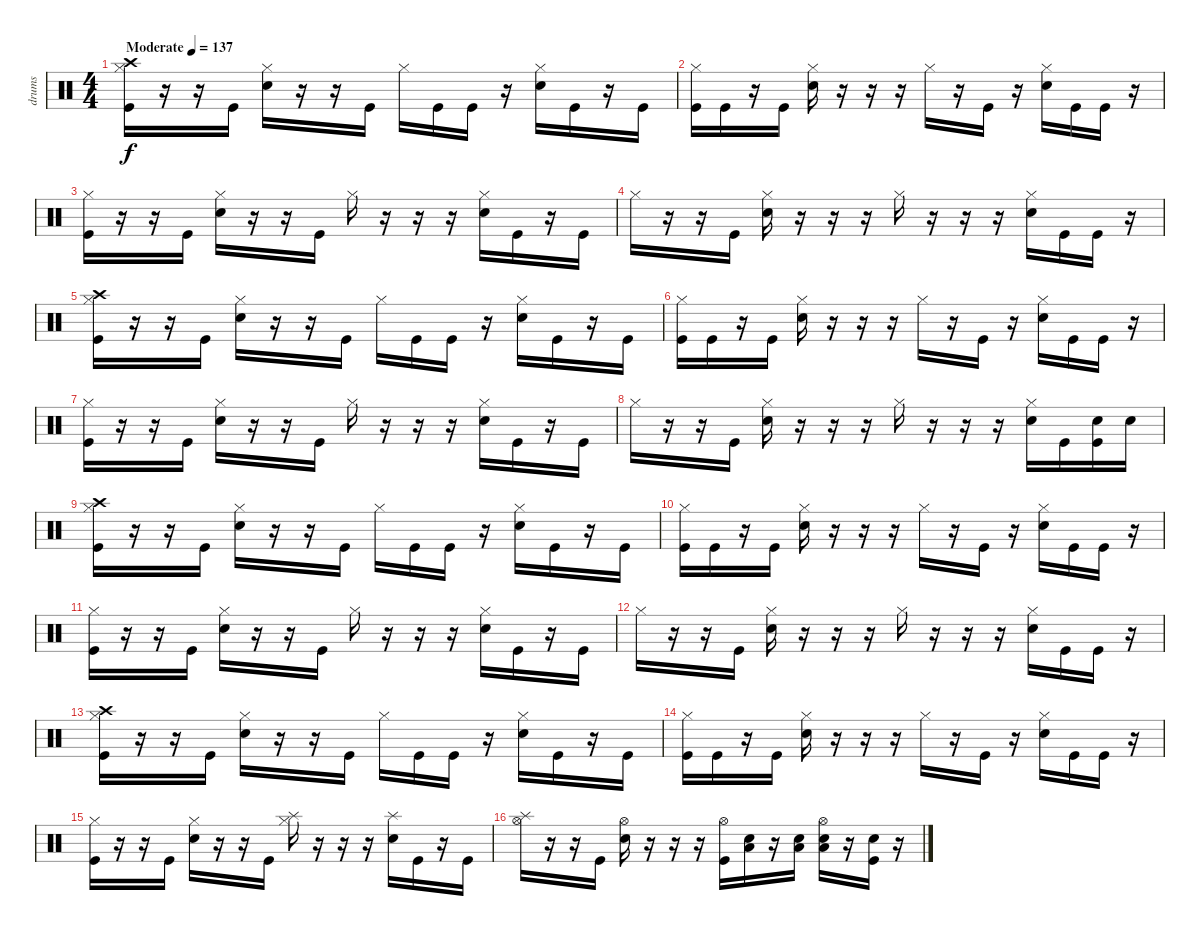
\track ("drums" "drums") {instrument percussion}
\staff {score}
\articulation defaults
\ts (4 4)
\tempo (137 "Moderate")
\clef neutral
\ks c
("Hi-Hat (closed)" "Crash high (hit)" "Kick (hit)").16{dy f} r.16 r.16 "Kick (hit)".16 ("Hi-Hat (closed)" "Electric Snare (hit)").16 r.16 r.16 "Kick (hit)".16 "Hi-Hat (closed)".16 "Kick (hit)".16 "Kick (hit)".16 r.16 ("Hi-Hat (closed)" "Electric Snare (hit)").16 "Kick (hit)".16 r.16 "Kick (hit)".16 |
("Hi-Hat (closed)" "Kick (hit)").16 "Kick (hit)".16 r.16 "Kick (hit)".16 ("Hi-Hat (closed)" "Electric Snare (hit)").16 r.16 r.16 r.16 "Hi-Hat (closed)".16 r.16 "Kick (hit)".16 r.16 ("Hi-Hat (closed)" "Electric Snare (hit)").16 "Kick (hit)".16 "Kick (hit)".16 r.16 |
("Hi-Hat (closed)" "Kick (hit)").16 r.16 r.16 "Kick (hit)".16 ("Hi-Hat (closed)" "Electric Snare (hit)").16 r.16 r.16 "Kick (hit)".16 "Hi-Hat (closed)".16 r.16 r.16 r.16 ("Hi-Hat (closed)" "Electric Snare (hit)").16 "Kick (hit)".16 r.16 "Kick (hit)".16 |
"Hi-Hat (closed)".16 r.16 r.16 "Kick (hit)".16 ("Hi-Hat (closed)" "Electric Snare (hit)").16 r.16 r.16 r.16 "Hi-Hat (closed)".16 r.16 r.16 r.16 ("Hi-Hat (closed)" "Electric Snare (hit)").16 "Kick (hit)".16 "Kick (hit)".16 r.16 |
("Hi-Hat (closed)" "Crash high (hit)" "Kick (hit)").16 r.16 r.16 "Kick (hit)".16 ("Hi-Hat (closed)" "Electric Snare (hit)").16 r.16 r.16 "Kick (hit)".16 "Hi-Hat (closed)".16 "Kick (hit)".16 "Kick (hit)".16 r.16 ("Hi-Hat (closed)" "Electric Snare (hit)").16 "Kick (hit)".16 r.16 "Kick (hit)".16 |
("Hi-Hat (closed)" "Kick (hit)").16 "Kick (hit)".16 r.16 "Kick (hit)".16 ("Hi-Hat (closed)" "Electric Snare (hit)").16 r.16 r.16 r.16 "Hi-Hat (closed)".16 r.16 "Kick (hit)".16 r.16 ("Hi-Hat (closed)" "Electric Snare (hit)").16 "Kick (hit)".16 "Kick (hit)".16 r.16 |
("Hi-Hat (closed)" "Kick (hit)").16 r.16 r.16 "Kick (hit)".16 ("Hi-Hat (closed)" "Electric Snare (hit)").16 r.16 r.16 "Kick (hit)".16 "Hi-Hat (closed)".16 r.16 r.16 r.16 ("Hi-Hat (closed)" "Electric Snare (hit)").16 "Kick (hit)".16 r.16 "Kick (hit)".16 |
"Hi-Hat (closed)".16 r.16 r.16 "Kick (hit)".16 ("Hi-Hat (closed)" "Electric Snare (hit)").16 r.16 r.16 r.16 "Hi-Hat (closed)".16 r.16 r.16 r.16 ("Hi-Hat (closed)" "Electric Snare (hit)").16 "Kick (hit)".16 ("Electric Snare (hit)" "Kick (hit)").16 "Electric Snare (hit)".16 |
("Hi-Hat (closed)" "Crash high (hit)" "Kick (hit)").16 r.16 r.16 "Kick (hit)".16 ("Hi-Hat (closed)" "Electric Snare (hit)").16 r.16 r.16 "Kick (hit)".16 "Hi-Hat (closed)".16 "Kick (hit)".16 "Kick (hit)".16 r.16 ("Hi-Hat (closed)" "Electric Snare (hit)").16 "Kick (hit)".16 r.16 "Kick (hit)".16 |
("Hi-Hat (closed)" "Kick (hit)").16 "Kick (hit)".16 r.16 "Kick (hit)".16 ("Hi-Hat (closed)" "Electric Snare (hit)").16 r.16 r.16 r.16 "Hi-Hat (closed)".16 r.16 "Kick (hit)".16 r.16 ("Hi-Hat (closed)" "Electric Snare (hit)").16 "Kick (hit)".16 "Kick (hit)".16 r.16 |
("Hi-Hat (closed)" "Kick (hit)").16 r.16 r.16 "Kick (hit)".16 ("Hi-Hat (closed)" "Electric Snare (hit)").16 r.16 r.16 "Kick (hit)".16 "Hi-Hat (closed)".16 r.16 r.16 r.16 ("Hi-Hat (closed)" "Electric Snare (hit)").16 "Kick (hit)".16 r.16 "Kick (hit)".16 |
"Hi-Hat (closed)".16 r.16 r.16 "Kick (hit)".16 ("Hi-Hat (closed)" "Electric Snare (hit)").16 r.16 r.16 r.16 "Hi-Hat (closed)".16 r.16 r.16 r.16 ("Hi-Hat (closed)" "Electric Snare (hit)").16 "Kick (hit)".16 "Kick (hit)".16 r.16 |
("Hi-Hat (closed)" "Crash high (hit)" "Kick (hit)").16 r.16 r.16 "Kick (hit)".16 ("Hi-Hat (closed)" "Electric Snare (hit)").16 r.16 r.16 "Kick (hit)".16 "Hi-Hat (closed)".16 "Kick (hit)".16 "Kick (hit)".16 r.16 ("Hi-Hat (closed)" "Electric Snare (hit)").16 "Kick (hit)".16 r.16 "Kick (hit)".16 |
("Hi-Hat (closed)" "Kick (hit)").16 "Kick (hit)".16 r.16 "Kick (hit)".16 ("Hi-Hat (closed)" "Electric Snare (hit)").16 r.16 r.16 r.16 "Hi-Hat (closed)".16 r.16 "Kick (hit)".16 r.16 ("Hi-Hat (closed)" "Electric Snare (hit)").16 "Kick (hit)".16 "Kick (hit)".16 r.16 |
("Hi-Hat (closed)" "Kick (hit)").16 r.16 r.16 "Kick (hit)".16 ("Hi-Hat (closed)" "Electric Snare (hit)").16 r.16 r.16 "Kick (hit)".16 ("Hi-Hat (closed)" "Splash (hit)").16 r.16 r.16 r.16 ("Splash (hit)" "Electric Snare (hit)").16 "Kick (hit)".16 r.16 "Kick (hit)".16 |
("Hi-Hat (open)" "Splash (hit)").16 r.16 r.16 "Kick (hit)".16 ("Hi-Hat (open)" "Electric Snare (hit)").16 r.16 r.16 r.16 ("Hi-Hat (open)" "Kick (hit)").16 ("Low Tom (hit)" "Snare (hit) 2").16 r.16 ("Low Tom (hit)" "Snare (hit) 2").16 ("Hi-Hat (open)" "Low Tom (hit)" "Snare (hit) 2").16 r.16 ("Electric Snare (hit)" "Kick (hit)").16 r.16
